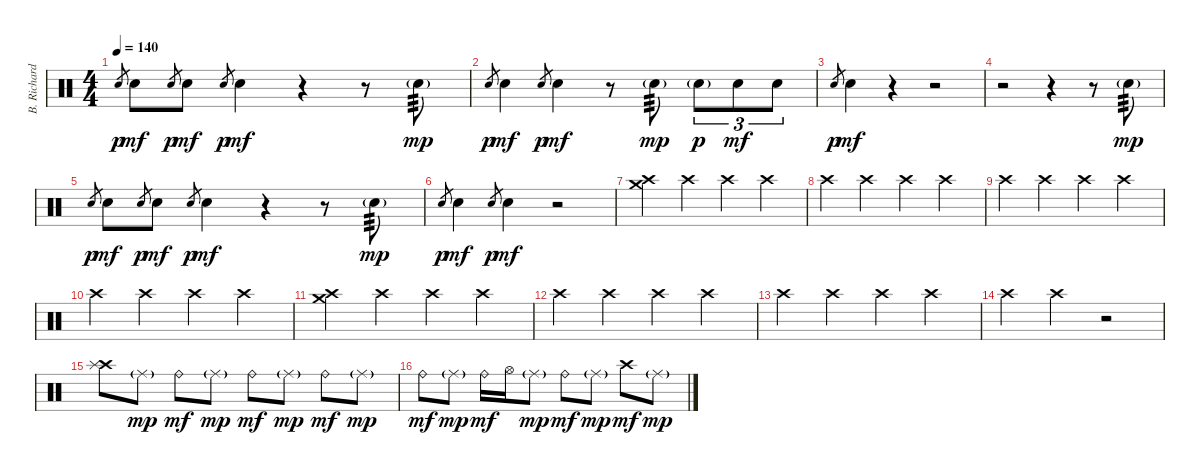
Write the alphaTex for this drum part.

\track ("B. Richardson Drums" "B. Richard") {instrument percussion}
\staff {score}
\articulation defaults
\ts (4 4)
\tempo 140
\clef neutral
\ks c "Snare (hit) 2".8{gr dy p} "Snare (hit) 2".8{dy mf} "Snare (hit) 2".8{gr dy p} "Snare (hit) 2".8{dy mf} "Snare (hit) 2".8{gr dy p} "Snare (hit) 2".4{dy mf}
r.4 r.8 "Snare (hit) 2"{g}.8{tp 3 dy mp} |
"Snare (hit) 2".8{gr dy p} "Snare (hit) 2".4{dy mf} "Snare (hit) 2".8{gr dy p} "Snare (hit) 2".4{dy mf} r.8 "Snare (hit) 2"{g}.8{tp 3 dy mp} "Snare (hit) 2"{g}.8{tu (3 2) dy p} "Snare (hit) 2".8{tu (3 2) dy mf} "Snare (hit) 2".8{tu (3 2)} |
"Snare (hit) 2".8{gr dy p} "Snare (hit) 2".4{dy mf} r.4 r.2 |
r.2 r.4 r.8 "Snare (hit) 2"{g}.8{tp 3 dy mp} |
"Snare (hit) 2".8{gr dy p} "Snare (hit) 2".8{dy mf} "Snare (hit) 2".8{gr dy p} "Snare (hit) 2".8{dy mf} "Snare (hit) 2".8{gr dy p} "Snare (hit) 2".4{dy mf} r.4 r.8 "Snare (hit) 2"{g}.8{tp 3 dy mp} |
"Snare (hit) 2".8{gr dy p} "Snare (hit) 2".4{dy mf} "Snare (hit) 2".8{gr dy p} "Snare (hit) 2".4{dy mf} r.2 |
("Crash high (hit)" "Crash medium (hit)").4 "Crash high (hit)".4 "Crash high (hit)".4 "Crash high (hit)".4 |
"Crash high (hit)".4 "Crash high (hit)".4 "Crash high (hit)".4 "Crash high (hit)".4 |
"Crash high (hit)".4 "Crash high (hit)".4 "Crash high (hit)".4 "Crash high (hit)".4 |
"Crash high (hit)".4 "Crash high (hit)".4 "Crash high (hit)".4 "Crash high (hit)".4 |
("Crash high (hit)" "Crash medium (hit)").4 "Crash high (hit)".4 "Crash high (hit)".4 "Crash high (hit)".4 |
"Crash high (hit)".4 "Crash high (hit)".4 "Crash high (hit)".4 "Crash high (hit)".4 |
"Crash high (hit)".4 "Crash high (hit)".4 "Crash high (hit)".4 "Crash high (hit)".4 |
"Crash high (hit)".4 "Crash high (hit)".4 r.2 |
("Crash high (hit)" "Splash (hit)").8 "Ride (middle)"{g}.8{dy mp} "Ride (bell)".8{dy mf} "Ride (middle)"{g}.8{dy mp} "Ride (bell)".8{dy mf} "Ride (middle)"{g}.8{dy mp} "Ride (bell)".8{dy mf} "Ride (middle)"{g}.8{dy mp} |
"Ride (bell)".8{dy mf} "Ride (middle)"{g}.8{dy mp} "Ride (bell)".16{dy mf} "Hi-Hat (open)".16 "Ride (middle)"{g}.8{dy mp} "Ride (bell)".8{dy mf} "Ride (middle)"{g}.8{dy mp} "Crash high (hit)".8{dy mf} "Ride (middle)"{g}.8{dy mp}
